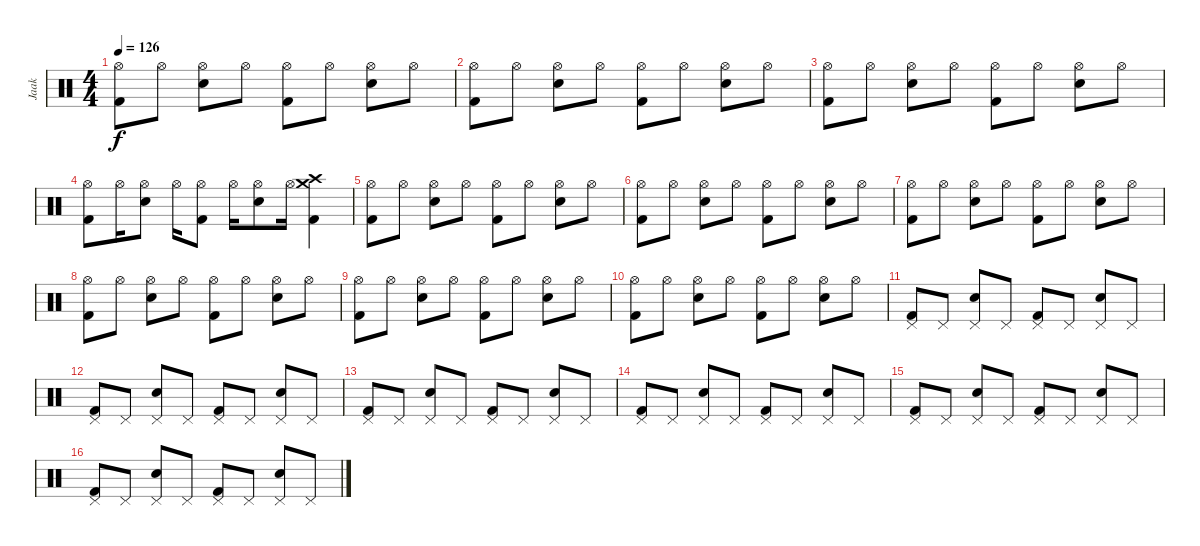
\track ("Jaak" "Jaak") {instrument percussion}
\staff {score}
\articulation defaults
\ts (4 4)
\tempo 126
\clef neutral
\ks c
("Hi-Hat (open)" "Kick (hit) 2").8{dy f} "Hi-Hat (open)".8 ("Hi-Hat (open)" "Snare (hit) 2").8 "Hi-Hat (open)".8 ("Hi-Hat (open)" "Kick (hit) 2").8 "Hi-Hat (open)".8 ("Hi-Hat (open)" "Snare (hit) 2").8 "Hi-Hat (open)".8 |
("Hi-Hat (open)" "Kick (hit) 2").8 "Hi-Hat (open)".8 ("Hi-Hat (open)" "Snare (hit) 2").8 "Hi-Hat (open)".8 ("Hi-Hat (open)" "Kick (hit) 2").8 "Hi-Hat (open)".8 ("Hi-Hat (open)" "Snare (hit) 2").8 "Hi-Hat (open)".8 |
("Hi-Hat (open)" "Kick (hit) 2").8 "Hi-Hat (open)".8 ("Hi-Hat (open)" "Snare (hit) 2").8 "Hi-Hat (open)".8 ("Hi-Hat (open)" "Kick (hit) 2").8 "Hi-Hat (open)".8 ("Hi-Hat (open)" "Snare (hit) 2").8 "Hi-Hat (open)".8 |
("Hi-Hat (open)" "Kick (hit) 2").8 "Hi-Hat (open)".16 ("Hi-Hat (open)" "Snare (hit) 2").8 "Hi-Hat (open)".16 ("Hi-Hat (open)" "Kick (hit) 2").8 "Hi-Hat (open)".16 ("Hi-Hat (open)" "Snare (hit) 2").8 "Hi-Hat (open)".16 ("Crash medium (hit)" "Crash high (hit)" "Kick (hit) 2").4 |
("Hi-Hat (open)" "Kick (hit) 2").8 "Hi-Hat (open)".8 ("Hi-Hat (open)" "Snare (hit) 2").8 "Hi-Hat (open)".8 ("Hi-Hat (open)" "Kick (hit) 2").8 "Hi-Hat (open)".8 ("Hi-Hat (open)" "Snare (hit) 2").8 "Hi-Hat (open)".8 |
("Hi-Hat (open)" "Kick (hit) 2").8 "Hi-Hat (open)".8 ("Hi-Hat (open)" "Snare (hit) 2").8 "Hi-Hat (open)".8 ("Hi-Hat (open)" "Kick (hit) 2").8 "Hi-Hat (open)".8 ("Hi-Hat (open)" "Snare (hit) 2").8 "Hi-Hat (open)".8 |
("Hi-Hat (open)" "Kick (hit) 2").8 "Hi-Hat (open)".8 ("Hi-Hat (open)" "Snare (hit) 2").8 "Hi-Hat (open)".8 ("Hi-Hat (open)" "Kick (hit) 2").8 "Hi-Hat (open)".8 ("Hi-Hat (open)" "Snare (hit) 2").8 "Hi-Hat (open)".8 |
("Hi-Hat (open)" "Kick (hit) 2").8 "Hi-Hat (open)".8 ("Hi-Hat (open)" "Snare (hit) 2").8 "Hi-Hat (open)".8 ("Hi-Hat (open)" "Kick (hit) 2").8 "Hi-Hat (open)".8 ("Hi-Hat (open)" "Snare (hit) 2").8 "Hi-Hat (open)".8 |
("Hi-Hat (open)" "Kick (hit) 2").8 "Hi-Hat (open)".8 ("Hi-Hat (open)" "Snare (hit) 2").8 "Hi-Hat (open)".8 ("Hi-Hat (open)" "Kick (hit) 2").8 "Hi-Hat (open)".8 ("Hi-Hat (open)" "Snare (hit) 2").8 "Hi-Hat (open)".8 |
("Hi-Hat (open)" "Kick (hit) 2").8 "Hi-Hat (open)".8 ("Hi-Hat (open)" "Snare (hit) 2").8 "Hi-Hat (open)".8 ("Hi-Hat (open)" "Kick (hit) 2").8 "Hi-Hat (open)".8 ("Hi-Hat (open)" "Snare (hit) 2").8 "Hi-Hat (open)".8 |
("Pedal Hi-Hat (hit)" "Kick (hit) 2").8 "Pedal Hi-Hat (hit)".8 ("Pedal Hi-Hat (hit)" "Snare (hit) 2").8 "Pedal Hi-Hat (hit)".8 ("Pedal Hi-Hat (hit)" "Kick (hit) 2").8 "Pedal Hi-Hat (hit)".8 ("Pedal Hi-Hat (hit)" "Snare (hit) 2").8 "Pedal Hi-Hat (hit)".8 |
("Pedal Hi-Hat (hit)" "Kick (hit) 2").8 "Pedal Hi-Hat (hit)".8 ("Pedal Hi-Hat (hit)" "Snare (hit) 2").8 "Pedal Hi-Hat (hit)".8 ("Pedal Hi-Hat (hit)" "Kick (hit) 2").8 "Pedal Hi-Hat (hit)".8 ("Pedal Hi-Hat (hit)" "Snare (hit) 2").8 "Pedal Hi-Hat (hit)".8 |
("Pedal Hi-Hat (hit)" "Kick (hit) 2").8 "Pedal Hi-Hat (hit)".8 ("Pedal Hi-Hat (hit)" "Snare (hit) 2").8 "Pedal Hi-Hat (hit)".8 ("Pedal Hi-Hat (hit)" "Kick (hit) 2").8 "Pedal Hi-Hat (hit)".8 ("Pedal Hi-Hat (hit)" "Snare (hit) 2").8 "Pedal Hi-Hat (hit)".8 |
("Pedal Hi-Hat (hit)" "Kick (hit) 2").8 "Pedal Hi-Hat (hit)".8 ("Pedal Hi-Hat (hit)" "Snare (hit) 2").8 "Pedal Hi-Hat (hit)".8 ("Pedal Hi-Hat (hit)" "Kick (hit) 2").8 "Pedal Hi-Hat (hit)".8 ("Pedal Hi-Hat (hit)" "Snare (hit) 2").8 "Pedal Hi-Hat (hit)".8 |
("Pedal Hi-Hat (hit)" "Kick (hit) 2").8 "Pedal Hi-Hat (hit)".8 ("Pedal Hi-Hat (hit)" "Snare (hit) 2").8 "Pedal Hi-Hat (hit)".8 ("Pedal Hi-Hat (hit)" "Kick (hit) 2").8 "Pedal Hi-Hat (hit)".8 ("Pedal Hi-Hat (hit)" "Snare (hit) 2").8 "Pedal Hi-Hat (hit)".8 |
("Pedal Hi-Hat (hit)" "Kick (hit) 2").8 "Pedal Hi-Hat (hit)".8 ("Pedal Hi-Hat (hit)" "Snare (hit) 2").8 "Pedal Hi-Hat (hit)".8 ("Pedal Hi-Hat (hit)" "Kick (hit) 2").8 "Pedal Hi-Hat (hit)".8 ("Pedal Hi-Hat (hit)" "Snare (hit) 2").8 "Pedal Hi-Hat (hit)".8
